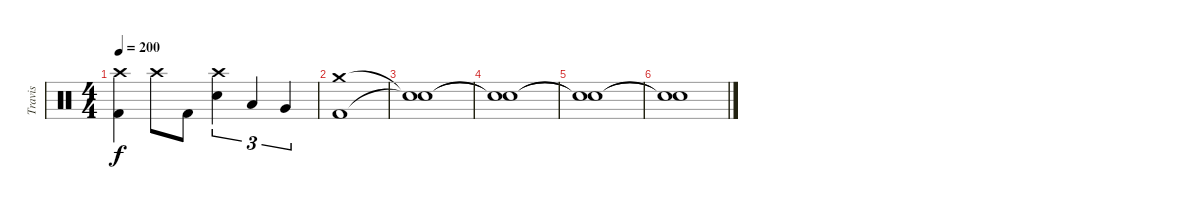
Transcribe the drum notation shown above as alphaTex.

\track ("Travis" "Travis") {instrument percussion}
\staff {score}
\articulation defaults
\ts (4 4)
\tempo 200
\clef neutral
\ks c
("Kick (hit) 2" "Crash high (hit)").4{dy f} "Crash high (hit)".8 "Kick (hit) 2".8 ("Snare (hit) 2" "Crash high (hit)").4{tu (3 2)} "Low Tom (hit)".4{tu (3 2)} "Very Low Tom (hit)".4{tu (3 2)} |
("Kick (hit) 2" "Crash medium (hit)").1 |
("Snare (hit)"{t} "Snare (hit)"{t}).1 |
("Snare (hit)"{t} "Snare (hit)"{t}).1 |
("Snare (hit)"{t} "Snare (hit)"{t}).1 |
("Snare (hit)"{t} "Snare (hit)"{t}).1
